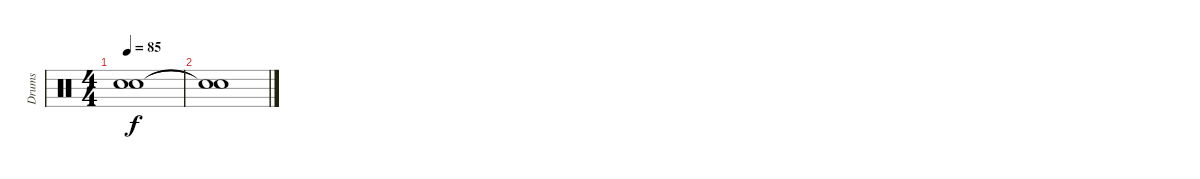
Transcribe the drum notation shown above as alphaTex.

\track ("Drums" "Drums") {instrument percussion}
\staff {score}
\articulation defaults
\ts (4 4)
\tempo 85
\clef neutral
\ks c
("Snare (hit)"{t} "Snare (hit)"{t}).1{dy f} |
("Snare (hit)"{t} "Snare (hit)"{t}).1
